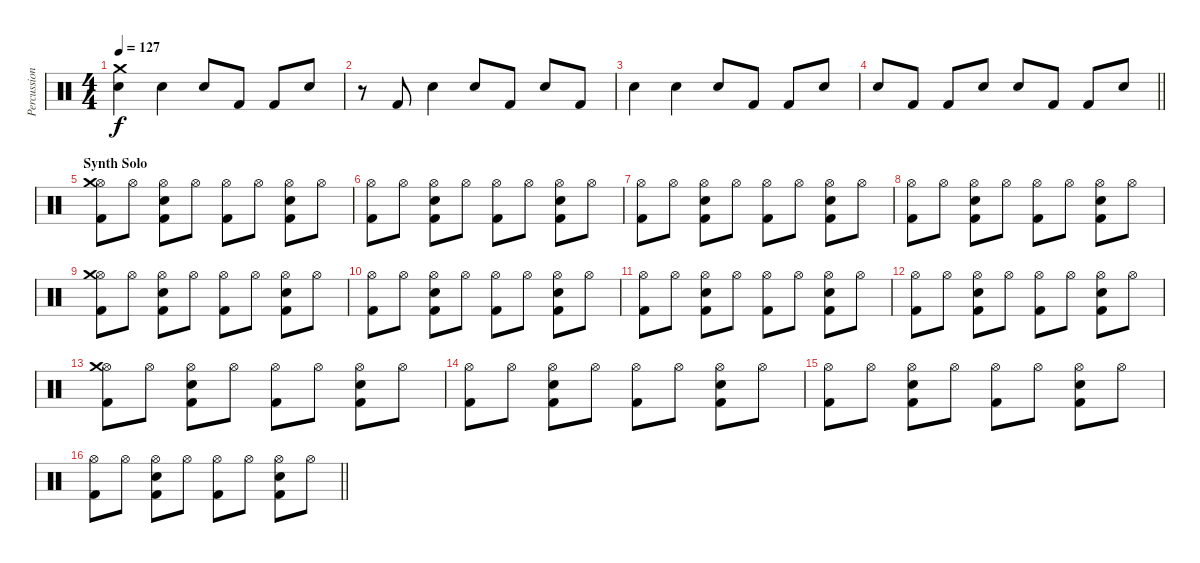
\track ("Percussion" "Percussion") {instrument percussion}
\staff {score}
\articulation defaults
\ts (4 4)
\tempo 127
\clef neutral
\ks c
("Crash medium (hit)" "Electric Snare (hit)").4{dy f} "Electric Snare (hit)".4 "Electric Snare (hit)".8 "Kick (hit) 2".8 "Kick (hit) 2".8 "Electric Snare (hit)".8 |
r.8 "Kick (hit) 2".8 "Electric Snare (hit)".4 "Electric Snare (hit)".8 "Kick (hit) 2".8 "Electric Snare (hit)".8 "Kick (hit) 2".8 |
"Electric Snare (hit)".4 "Electric Snare (hit)".4 "Electric Snare (hit)".8 "Kick (hit) 2".8 "Kick (hit) 2".8 "Electric Snare (hit)".8 |
\barLineRight lightlight "Electric Snare (hit)".8 "Kick (hit) 2".8 "Kick (hit) 2".8 "Electric Snare (hit)".8 "Electric Snare (hit)".8 "Kick (hit) 2".8 "Kick (hit) 2".8 "Electric Snare (hit)".8
|
\section ("" "Synth Solo")
("Hi-Hat (open)" "Crash medium (hit)" "Kick (hit) 2").8 "Hi-Hat (open)".8 ("Hi-Hat (open)" "Electric Snare (hit)" "Kick (hit) 2").8 "Hi-Hat (open)".8 ("Hi-Hat (open)" "Kick (hit) 2").8 "Hi-Hat (open)".8 ("Hi-Hat (open)" "Electric Snare (hit)" "Kick (hit) 2").8 "Hi-Hat (open)".8 |
("Hi-Hat (open)" "Kick (hit) 2").8 "Hi-Hat (open)".8 ("Hi-Hat (open)" "Electric Snare (hit)" "Kick (hit) 2").8 "Hi-Hat (open)".8 ("Hi-Hat (open)" "Kick (hit) 2").8 "Hi-Hat (open)".8 ("Hi-Hat (open)" "Electric Snare (hit)" "Kick (hit) 2").8 "Hi-Hat (open)".8 |
("Hi-Hat (open)" "Kick (hit) 2").8 "Hi-Hat (open)".8 ("Hi-Hat (open)" "Electric Snare (hit)" "Kick (hit) 2").8 "Hi-Hat (open)".8 ("Hi-Hat (open)" "Kick (hit) 2").8 "Hi-Hat (open)".8 ("Hi-Hat (open)" "Electric Snare (hit)" "Kick (hit) 2").8 "Hi-Hat (open)".8 |
("Hi-Hat (open)" "Kick (hit) 2").8 "Hi-Hat (open)".8 ("Hi-Hat (open)" "Electric Snare (hit)" "Kick (hit) 2").8 "Hi-Hat (open)".8 ("Hi-Hat (open)" "Kick (hit) 2").8 "Hi-Hat (open)".8 ("Hi-Hat (open)" "Electric Snare (hit)" "Kick (hit) 2").8 "Hi-Hat (open)".8 |
("Hi-Hat (open)" "Crash medium (hit)" "Kick (hit) 2").8 "Hi-Hat (open)".8 ("Hi-Hat (open)" "Electric Snare (hit)" "Kick (hit) 2").8 "Hi-Hat (open)".8 ("Hi-Hat (open)" "Kick (hit) 2").8 "Hi-Hat (open)".8 ("Hi-Hat (open)" "Electric Snare (hit)" "Kick (hit) 2").8 "Hi-Hat (open)".8 |
("Hi-Hat (open)" "Kick (hit) 2").8 "Hi-Hat (open)".8 ("Hi-Hat (open)" "Electric Snare (hit)" "Kick (hit) 2").8 "Hi-Hat (open)".8 ("Hi-Hat (open)" "Kick (hit) 2").8 "Hi-Hat (open)".8 ("Hi-Hat (open)" "Electric Snare (hit)" "Kick (hit) 2").8 "Hi-Hat (open)".8 |
("Hi-Hat (open)" "Kick (hit) 2").8 "Hi-Hat (open)".8 ("Hi-Hat (open)" "Electric Snare (hit)" "Kick (hit) 2").8 "Hi-Hat (open)".8 ("Hi-Hat (open)" "Kick (hit) 2").8 "Hi-Hat (open)".8 ("Hi-Hat (open)" "Electric Snare (hit)" "Kick (hit) 2").8 "Hi-Hat (open)".8 |
("Hi-Hat (open)" "Kick (hit) 2").8 "Hi-Hat (open)".8 ("Hi-Hat (open)" "Electric Snare (hit)" "Kick (hit) 2").8 "Hi-Hat (open)".8 ("Hi-Hat (open)" "Kick (hit) 2").8 "Hi-Hat (open)".8 ("Hi-Hat (open)" "Electric Snare (hit)" "Kick (hit) 2").8 "Hi-Hat (open)".8 |
("Hi-Hat (open)" "Crash medium (hit)" "Kick (hit) 2").8 "Hi-Hat (open)".8 ("Hi-Hat (open)" "Electric Snare (hit)" "Kick (hit) 2").8 "Hi-Hat (open)".8 ("Hi-Hat (open)" "Kick (hit) 2").8 "Hi-Hat (open)".8 ("Hi-Hat (open)" "Electric Snare (hit)" "Kick (hit) 2").8 "Hi-Hat (open)".8 |
("Hi-Hat (open)" "Kick (hit) 2").8 "Hi-Hat (open)".8 ("Hi-Hat (open)" "Electric Snare (hit)" "Kick (hit) 2").8 "Hi-Hat (open)".8 ("Hi-Hat (open)" "Kick (hit) 2").8 "Hi-Hat (open)".8 ("Hi-Hat (open)" "Electric Snare (hit)" "Kick (hit) 2").8 "Hi-Hat (open)".8 |
("Hi-Hat (open)" "Kick (hit) 2").8 "Hi-Hat (open)".8 ("Hi-Hat (open)" "Electric Snare (hit)" "Kick (hit) 2").8 "Hi-Hat (open)".8 ("Hi-Hat (open)" "Kick (hit) 2").8 "Hi-Hat (open)".8 ("Hi-Hat (open)" "Electric Snare (hit)" "Kick (hit) 2").8 "Hi-Hat (open)".8 |
\barLineRight lightlight
("Hi-Hat (open)" "Kick (hit) 2").8 "Hi-Hat (open)".8 ("Hi-Hat (open)" "Electric Snare (hit)" "Kick (hit) 2").8 "Hi-Hat (open)".8 ("Hi-Hat (open)" "Kick (hit) 2").8 "Hi-Hat (open)".8 ("Hi-Hat (open)" "Electric Snare (hit)" "Kick (hit) 2").8 "Hi-Hat (open)".8
